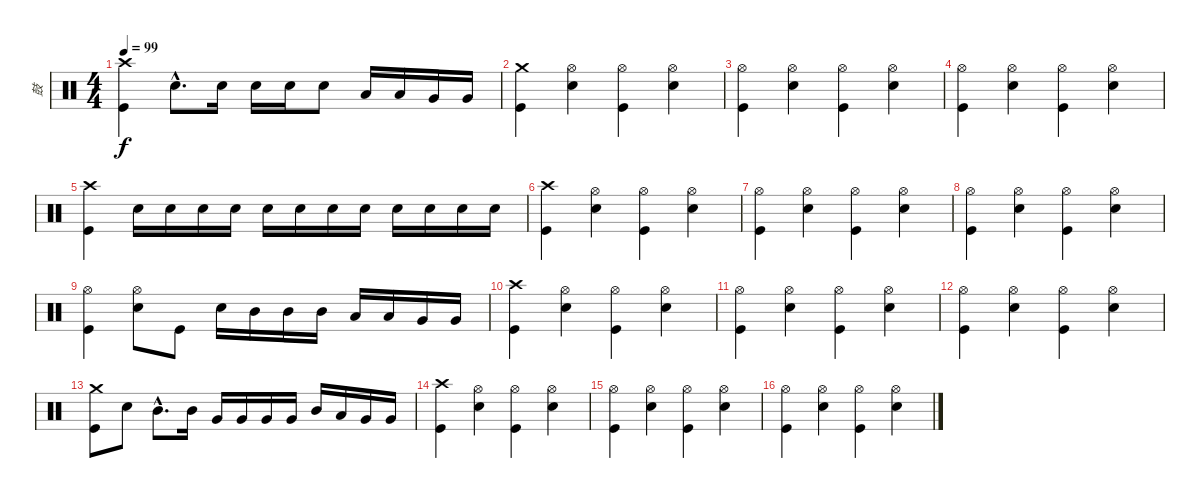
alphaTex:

\track ("鼓" "鼓") {instrument percussion}
\staff {score}
\articulation defaults
\ts (4 4)
\tempo 99
\clef neutral
\ks c
("Crash high (hit)" "Kick (hit)").4{dy f} "Snare (hit) 2"{hac}.8{d} "Snare (hit) 2".16 "Snare (hit) 2".16 "Snare (hit) 2".16 "Snare (hit) 2".8 "Low Tom (hit)".16 "Low Tom (hit)".16 "Very Low Tom (hit)".16 "Very Low Tom (hit)".16 |
("Crash medium (hit)" "Kick (hit)").4 ("Hi-Hat (open)" "Snare (hit) 2").4 ("Hi-Hat (open)" "Kick (hit)").4 ("Hi-Hat (open)" "Snare (hit) 2").4 |
("Hi-Hat (open)" "Kick (hit)").4 ("Hi-Hat (open)" "Snare (hit) 2").4 ("Hi-Hat (open)" "Kick (hit)").4 ("Hi-Hat (open)" "Snare (hit) 2").4 |
("Hi-Hat (open)" "Kick (hit)").4 ("Hi-Hat (open)" "Snare (hit) 2").4 ("Hi-Hat (open)" "Kick (hit)").4 ("Hi-Hat (open)" "Snare (hit) 2").4 |
("Crash high (hit)" "Kick (hit)").4 "Snare (hit) 2".16 "Snare (hit) 2".16 "Snare (hit) 2".16 "Snare (hit) 2".16 "Snare (hit) 2".16 "Snare (hit) 2".16 "Snare (hit) 2".16 "Snare (hit) 2".16 "Snare (hit) 2".16 "Snare (hit) 2".16 "Snare (hit) 2".16 "Snare (hit) 2".16 |
("Crash high (hit)" "Kick (hit)").4 ("Hi-Hat (open)" "Snare (hit) 2").4 ("Hi-Hat (open)" "Kick (hit)").4 ("Hi-Hat (open)" "Snare (hit) 2").4 |
("Hi-Hat (open)" "Kick (hit)").4 ("Hi-Hat (open)" "Snare (hit) 2").4 ("Hi-Hat (open)" "Kick (hit)").4 ("Hi-Hat (open)" "Snare (hit) 2").4 |
("Hi-Hat (open)" "Kick (hit)").4 ("Hi-Hat (open)" "Snare (hit) 2").4 ("Hi-Hat (open)" "Kick (hit)").4 ("Hi-Hat (open)" "Snare (hit) 2").4 |
("Hi-Hat (open)" "Kick (hit)").4 ("Hi-Hat (open)" "Snare (hit) 2").8 "Kick (hit)".8 "Snare (hit) 2".16 "Mid Tom (hit)".16 "Mid Tom (hit)".16 "Mid Tom (hit)".16 "Low Tom (hit)".16 "Low Tom (hit)".16 "Very Low Tom (hit)".16 "Very Low Tom (hit)".16 |
("Crash high (hit)" "Kick (hit)").4 ("Hi-Hat (open)" "Snare (hit) 2").4 ("Hi-Hat (open)" "Kick (hit)").4 ("Hi-Hat (open)" "Snare (hit) 2").4 |
("Hi-Hat (open)" "Kick (hit)").4 ("Hi-Hat (open)" "Snare (hit) 2").4 ("Hi-Hat (open)" "Kick (hit)").4 ("Hi-Hat (open)" "Snare (hit) 2").4 |
("Hi-Hat (open)" "Kick (hit)").4 ("Hi-Hat (open)" "Snare (hit) 2").4 ("Hi-Hat (open)" "Kick (hit)").4 ("Hi-Hat (open)" "Snare (hit) 2").4 |
("Crash medium (hit)" "Kick (hit)").8 "Snare (hit) 2".8 "Mid Tom (hit)"{hac}.8{d} "Mid Tom (hit)".16 "Very Low Tom (hit)".16 "Very Low Tom (hit)".16 "Very Low Tom (hit)".16 "Very Low Tom (hit)".16 "Mid Tom (hit)".16 "Low Tom (hit)".16 "Very Low Tom (hit)".16 "Very Low Tom (hit)".16 |
("Crash high (hit)" "Kick (hit)").4 ("Hi-Hat (open)" "Snare (hit) 2").4 ("Hi-Hat (open)" "Kick (hit)").4 ("Hi-Hat (open)" "Snare (hit) 2").4 |
("Hi-Hat (open)" "Kick (hit)").4 ("Hi-Hat (open)" "Snare (hit) 2").4 ("Hi-Hat (open)" "Kick (hit)").4 ("Hi-Hat (open)" "Snare (hit) 2").4 |
("Hi-Hat (open)" "Kick (hit)").4 ("Hi-Hat (open)" "Snare (hit) 2").4 ("Hi-Hat (open)" "Kick (hit)").4 ("Hi-Hat (open)" "Snare (hit) 2").4
